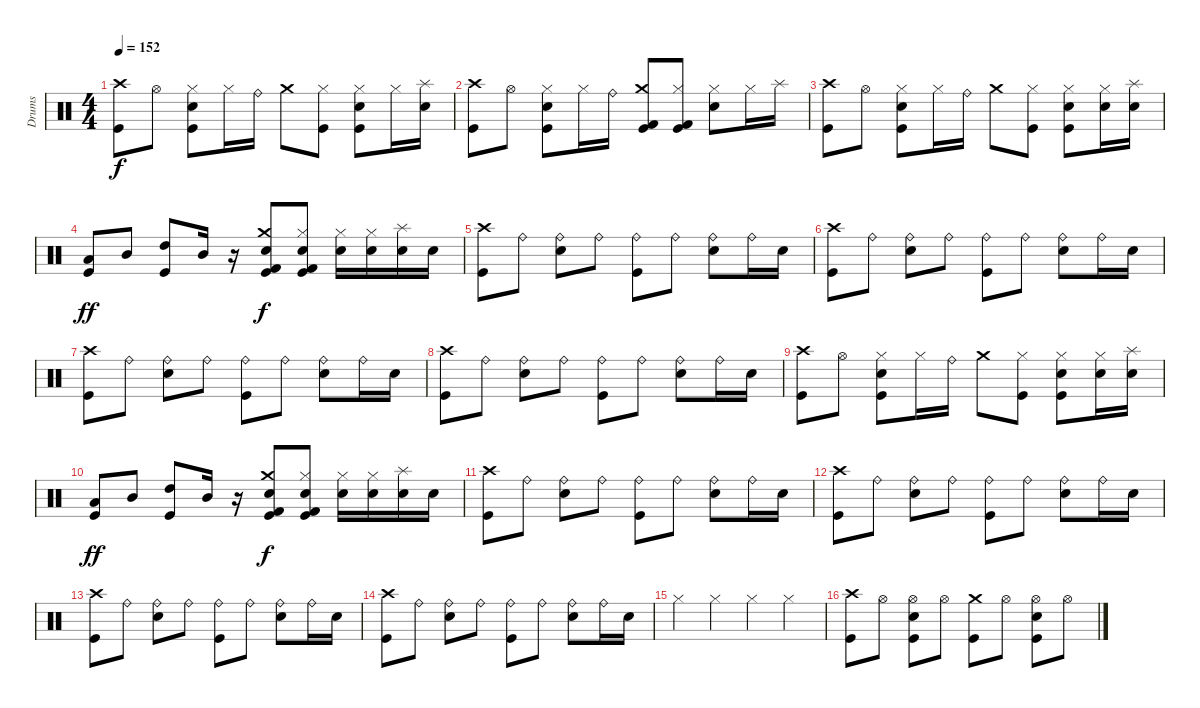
\track ("Drums" "Drums") {instrument percussion}
\staff {score}
\articulation defaults
\ts (4 4)
\tempo 152
\clef neutral
\ks c
("Crash high (hit)" "Kick (hit)").8{dy f} "Hi-Hat (open)".8 ("Hi-Hat (closed)" "Electric Snare (hit)" "Kick (hit)").8 "Hi-Hat (closed)".16 "Ride (bell)".16 "Crash medium (hit)".8 ("Hi-Hat (closed)" "Kick (hit)").8 ("Hi-Hat (closed)" "Electric Snare (hit)" "Kick (hit)").8 "Hi-Hat (closed)".16 ("Splash (hit)" "Electric Snare (hit)").16 |
("Crash high (hit)" "Kick (hit)").8 "Hi-Hat (open)".8 ("Hi-Hat (closed)" "Electric Snare (hit)" "Kick (hit)").8 "Hi-Hat (closed)".16 "Ride (bell)".16 ("Crash medium (hit)" "Kick (hit) 2" "Kick (hit)").8 ("Hi-Hat (closed)" "Kick (hit) 2" "Kick (hit)").8 ("Hi-Hat (closed)" "Electric Snare (hit)").8 "Hi-Hat (closed)".16 "Splash (hit)".16 |
("Crash high (hit)" "Kick (hit)").8 "Hi-Hat (open)".8 ("Hi-Hat (closed)" "Electric Snare (hit)" "Kick (hit)").8 "Hi-Hat (closed)".16 "Ride (bell)".16 "Crash medium (hit)".8 ("Hi-Hat (closed)" "Kick (hit)").8 ("Hi-Hat (closed)" "Electric Snare (hit)" "Kick (hit)").8 ("Hi-Hat (closed)" "Electric Snare (hit)").16 ("Splash (hit)" "Electric Snare (hit)").16 |
("Low Tom (hit)" "Kick (hit)").8{dy ff} "Mid Tom (hit)".8 ("High Tom (hit)" "Kick (hit)").8 "Mid Tom (hit)".16 r.16 ("Crash medium (hit)" "Electric Snare (hit)" "Kick (hit) 2" "Kick (hit)").8{dy f} ("Hi-Hat (closed)" "Electric Snare (hit)" "Kick (hit) 2" "Kick (hit)").8 ("Hi-Hat (closed)" "Electric Snare (hit)").16 ("Hi-Hat (closed)" "Electric Snare (hit)").16 ("Splash (hit)" "Electric Snare (hit)").16 "Electric Snare (hit)".16 |
("Crash high (hit)" "Kick (hit)").8 "Ride (bell)".8 ("Ride (bell)" "Electric Snare (hit)").8 "Ride (bell)".8 ("Ride (bell)" "Kick (hit)").8 "Ride (bell)".8 ("Ride (bell)" "Electric Snare (hit)").8 "Ride (bell)".16 "Electric Snare (hit)".16 |
("Crash high (hit)" "Kick (hit)").8 "Ride (bell)".8 ("Ride (bell)" "Electric Snare (hit)").8 "Ride (bell)".8 ("Ride (bell)" "Kick (hit)").8 "Ride (bell)".8 ("Ride (bell)" "Electric Snare (hit)").8 "Ride (bell)".16 "Electric Snare (hit)".16 |
("Crash high (hit)" "Kick (hit)").8 "Ride (bell)".8 ("Ride (bell)" "Electric Snare (hit)").8 "Ride (bell)".8 ("Ride (bell)" "Kick (hit)").8 "Ride (bell)".8 ("Ride (bell)" "Electric Snare (hit)").8 "Ride (bell)".16 "Electric Snare (hit)".16 |
("Crash high (hit)" "Kick (hit)").8 "Ride (bell)".8 ("Ride (bell)" "Electric Snare (hit)").8 "Ride (bell)".8 ("Ride (bell)" "Kick (hit)").8 "Ride (bell)".8 ("Ride (bell)" "Electric Snare (hit)").8 "Ride (bell)".16 "Electric Snare (hit)".16 |
("Crash high (hit)" "Kick (hit)").8 "Hi-Hat (open)".8 ("Hi-Hat (closed)" "Electric Snare (hit)" "Kick (hit)").8 "Hi-Hat (closed)".16 "Ride (bell)".16 "Crash medium (hit)".8 ("Hi-Hat (closed)" "Kick (hit)").8 ("Hi-Hat (closed)" "Electric Snare (hit)" "Kick (hit)").8 ("Hi-Hat (closed)" "Electric Snare (hit)").16 ("Splash (hit)" "Electric Snare (hit)").16 |
("Low Tom (hit)" "Kick (hit)").8{dy ff} "Mid Tom (hit)".8 ("High Tom (hit)" "Kick (hit)").8 "Mid Tom (hit)".16 r.16 ("Crash medium (hit)" "Electric Snare (hit)" "Kick (hit) 2" "Kick (hit)").8{dy f} ("Hi-Hat (closed)" "Electric Snare (hit)" "Kick (hit) 2" "Kick (hit)").8 ("Hi-Hat (closed)" "Electric Snare (hit)").16 ("Hi-Hat (closed)" "Electric Snare (hit)").16 ("Splash (hit)" "Electric Snare (hit)").16 "Electric Snare (hit)".16 |
("Crash high (hit)" "Kick (hit)").8 "Ride (bell)".8 ("Ride (bell)" "Electric Snare (hit)").8 "Ride (bell)".8 ("Ride (bell)" "Kick (hit)").8 "Ride (bell)".8 ("Ride (bell)" "Electric Snare (hit)").8 "Ride (bell)".16 "Electric Snare (hit)".16 |
("Crash high (hit)" "Kick (hit)").8 "Ride (bell)".8 ("Ride (bell)" "Electric Snare (hit)").8 "Ride (bell)".8 ("Ride (bell)" "Kick (hit)").8 "Ride (bell)".8 ("Ride (bell)" "Electric Snare (hit)").8 "Ride (bell)".16 "Electric Snare (hit)".16 |
("Crash high (hit)" "Kick (hit)").8 "Ride (bell)".8 ("Ride (bell)" "Electric Snare (hit)").8 "Ride (bell)".8 ("Ride (bell)" "Kick (hit)").8 "Ride (bell)".8 ("Ride (bell)" "Electric Snare (hit)").8 "Ride (bell)".16 "Electric Snare (hit)".16 |
("Crash high (hit)" "Kick (hit)").8 "Ride (bell)".8 ("Ride (bell)" "Electric Snare (hit)").8 "Ride (bell)".8 ("Ride (bell)" "Kick (hit)").8 "Ride (bell)".8 ("Ride (bell)" "Electric Snare (hit)").8 "Ride (bell)".16 "Electric Snare (hit)".16 |
"Hi-Hat (closed)".4 "Hi-Hat (closed)".4 "Hi-Hat (closed)".4 "Hi-Hat (closed)".4 |
("Crash high (hit)" "Kick (hit)").8 "Hi-Hat (open)".8 ("Hi-Hat (open)" "Electric Snare (hit)" "Kick (hit)").8 "Hi-Hat (open)".8 ("Crash medium (hit)" "Kick (hit)").8 "Hi-Hat (open)".8 ("Hi-Hat (open)" "Electric Snare (hit)" "Kick (hit)").8 "Hi-Hat (open)".8
